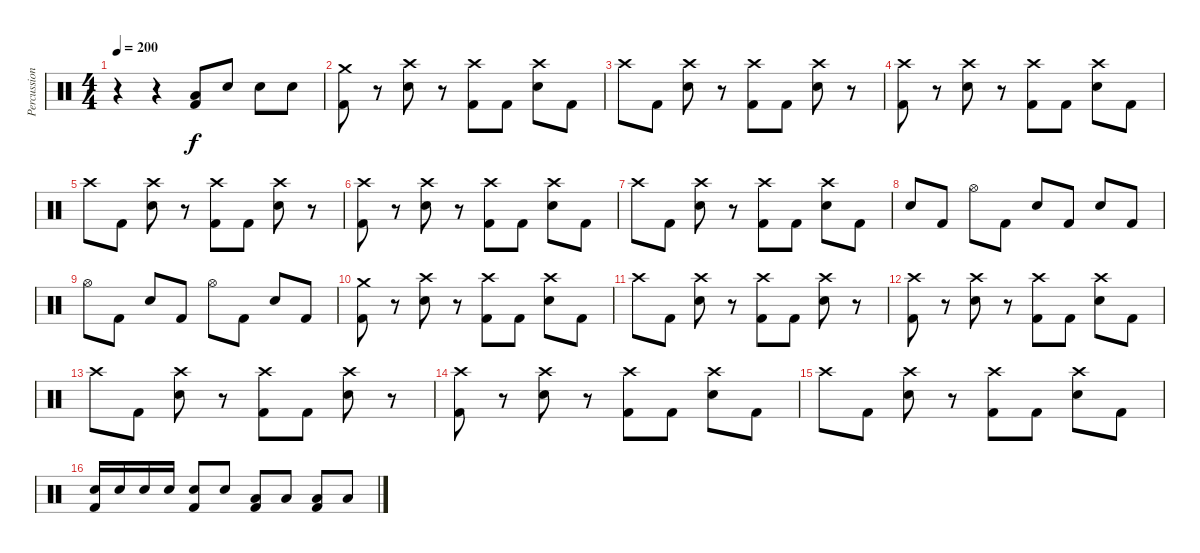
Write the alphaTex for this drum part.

\track ("Percussion" "Percussion") {instrument percussion}
\staff {score}
\articulation defaults
\ts (4 4)
\tempo 200
\clef neutral
\ks c
r.4{dy f} r.4 ("Kick (hit) 2" "Low Tom (hit)").8 "Electric Snare (hit)".8 "Electric Snare (hit)".8 "Electric Snare (hit)".8 |
("Crash medium (hit)" "Kick (hit) 2").8 r.8 ("Crash high (hit)" "Electric Snare (hit)").8 r.8 ("Crash high (hit)" "Kick (hit) 2").8 "Kick (hit) 2".8 ("Crash high (hit)" "Electric Snare (hit)").8 "Kick (hit) 2".8 |
"Crash high (hit)".8 "Kick (hit) 2".8 ("Crash high (hit)" "Electric Snare (hit)").8 r.8 ("Crash high (hit)" "Kick (hit) 2").8 "Kick (hit) 2".8 ("Crash high (hit)" "Electric Snare (hit)").8 r.8 |
("Crash high (hit)" "Kick (hit) 2").8 r.8 ("Crash high (hit)" "Electric Snare (hit)").8 r.8 ("Crash high (hit)" "Kick (hit) 2").8 "Kick (hit) 2".8 ("Crash high (hit)" "Electric Snare (hit)").8 "Kick (hit) 2".8 |
"Crash high (hit)".8 "Kick (hit) 2".8 ("Crash high (hit)" "Electric Snare (hit)").8 r.8 ("Crash high (hit)" "Kick (hit) 2").8 "Kick (hit) 2".8 ("Crash high (hit)" "Electric Snare (hit)").8 r.8 |
("Crash high (hit)" "Kick (hit) 2").8 r.8 ("Crash high (hit)" "Electric Snare (hit)").8 r.8 ("Crash high (hit)" "Kick (hit) 2").8 "Kick (hit) 2".8 ("Crash high (hit)" "Electric Snare (hit)").8 "Kick (hit) 2".8 |
"Crash high (hit)".8 "Kick (hit) 2".8 ("Crash high (hit)" "Electric Snare (hit)").8 r.8 ("Crash high (hit)" "Kick (hit) 2").8 "Kick (hit) 2".8 ("Crash high (hit)" "Electric Snare (hit)").8 "Kick (hit) 2".8 |
"Electric Snare (hit)".8 "Kick (hit) 2".8 "Hi-Hat (open)".8 "Kick (hit) 2".8 "Electric Snare (hit)".8 "Kick (hit) 2".8 "Electric Snare (hit)".8 "Kick (hit) 2".8 |
"Hi-Hat (open)".8 "Kick (hit) 2".8 "Electric Snare (hit)".8 "Kick (hit) 2".8 "Hi-Hat (open)".8 "Kick (hit) 2".8 "Electric Snare (hit)".8 "Kick (hit) 2".8 |
("Crash medium (hit)" "Kick (hit) 2").8 r.8 ("Crash high (hit)" "Electric Snare (hit)").8 r.8 ("Crash high (hit)" "Kick (hit) 2").8 "Kick (hit) 2".8 ("Crash high (hit)" "Electric Snare (hit)").8 "Kick (hit) 2".8 |
"Crash high (hit)".8 "Kick (hit) 2".8 ("Crash high (hit)" "Electric Snare (hit)").8 r.8 ("Crash high (hit)" "Kick (hit) 2").8 "Kick (hit) 2".8 ("Crash high (hit)" "Electric Snare (hit)").8 r.8 |
("Crash high (hit)" "Kick (hit) 2").8 r.8 ("Crash high (hit)" "Electric Snare (hit)").8 r.8 ("Crash high (hit)" "Kick (hit) 2").8 "Kick (hit) 2".8 ("Crash high (hit)" "Electric Snare (hit)").8 "Kick (hit) 2".8 |
"Crash high (hit)".8 "Kick (hit) 2".8 ("Crash high (hit)" "Electric Snare (hit)").8 r.8 ("Crash high (hit)" "Kick (hit) 2").8 "Kick (hit) 2".8 ("Crash high (hit)" "Electric Snare (hit)").8 r.8 |
("Crash high (hit)" "Kick (hit) 2").8 r.8 ("Crash high (hit)" "Electric Snare (hit)").8 r.8 ("Crash high (hit)" "Kick (hit) 2").8 "Kick (hit) 2".8 ("Crash high (hit)" "Electric Snare (hit)").8 "Kick (hit) 2".8 |
"Crash high (hit)".8 "Kick (hit) 2".8 ("Crash high (hit)" "Electric Snare (hit)").8 r.8 ("Crash high (hit)" "Kick (hit) 2").8 "Kick (hit) 2".8 ("Crash high (hit)" "Electric Snare (hit)").8 "Kick (hit) 2".8 |
("Electric Snare (hit)" "Kick (hit) 2").16 "Electric Snare (hit)".16 "Electric Snare (hit)".16 "Electric Snare (hit)".16 ("Electric Snare (hit)" "Kick (hit) 2").8 "Electric Snare (hit)".8 ("Low Tom (hit)" "Kick (hit) 2").8 "Low Tom (hit)".8 ("Low Floor Tom (hit)" "Kick (hit) 2").8 "Low Floor Tom (hit)".8
